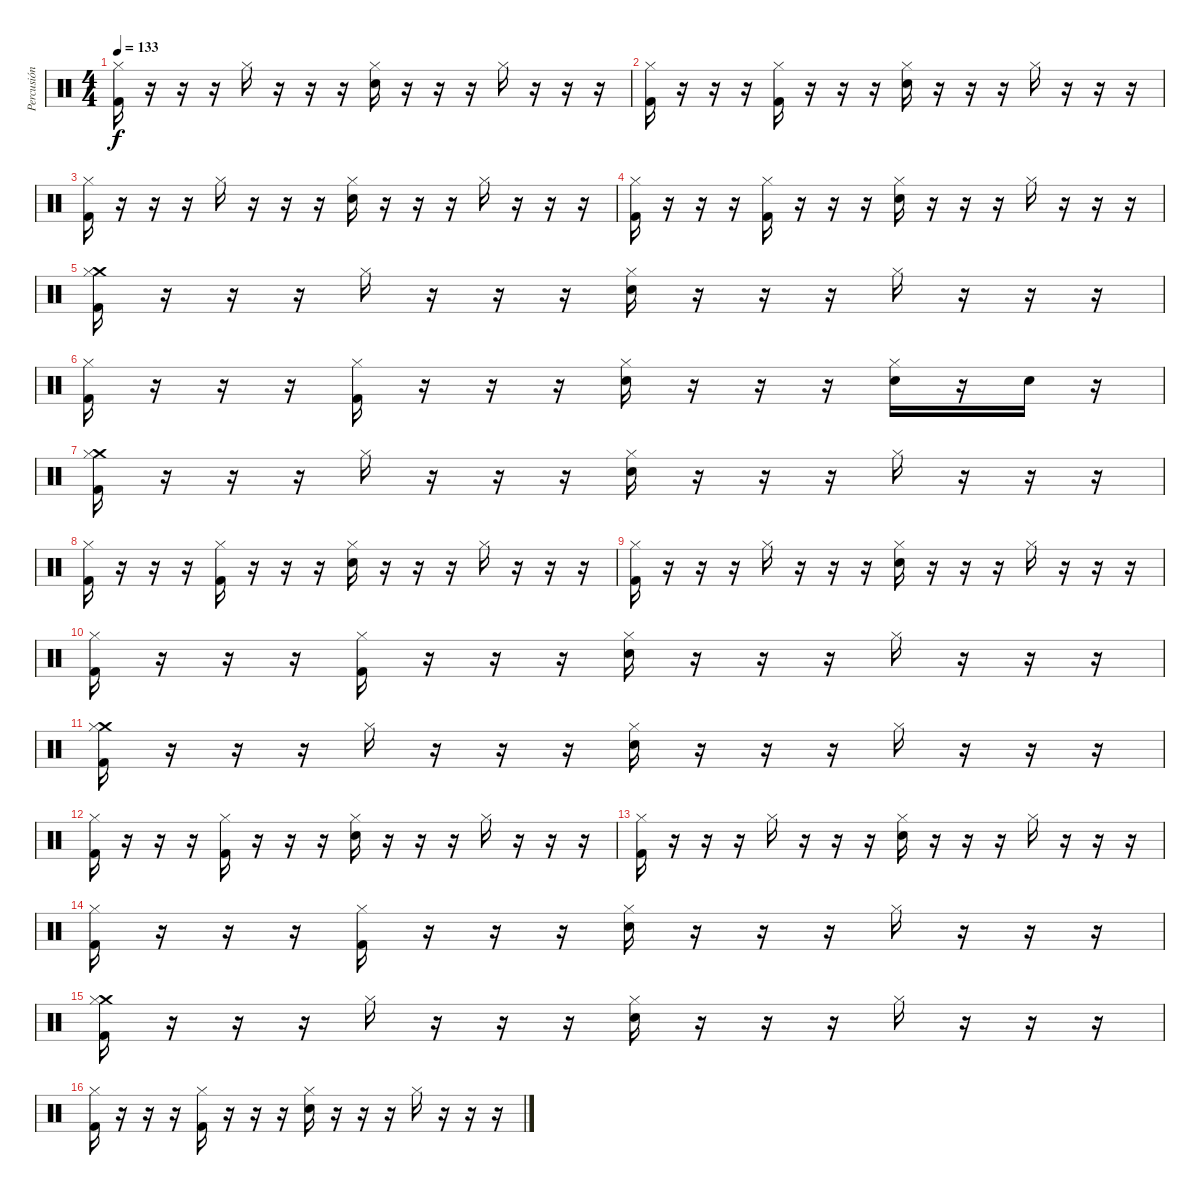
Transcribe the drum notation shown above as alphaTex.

\track ("Percusión" "Percusión") {instrument percussion}
\staff {score}
\articulation defaults
\ts (4 4)
\tempo 133
\clef neutral
\ks c
("Hi-Hat (closed)" "Kick (hit) 2").16{dy f} r.16 r.16 r.16 "Hi-Hat (closed)".16 r.16 r.16 r.16 ("Hi-Hat (closed)" "Snare (hit) 2").16 r.16 r.16 r.16 "Hi-Hat (closed)".16 r.16 r.16 r.16 |
("Hi-Hat (closed)" "Kick (hit) 2").16 r.16 r.16 r.16 ("Hi-Hat (closed)" "Kick (hit) 2").16 r.16 r.16 r.16 ("Hi-Hat (closed)" "Snare (hit) 2").16 r.16 r.16 r.16 "Hi-Hat (closed)".16 r.16 r.16 r.16 |
("Hi-Hat (closed)" "Kick (hit) 2").16 r.16 r.16 r.16 "Hi-Hat (closed)".16 r.16 r.16 r.16 ("Hi-Hat (closed)" "Snare (hit) 2").16 r.16 r.16 r.16 "Hi-Hat (closed)".16 r.16 r.16 r.16 |
("Hi-Hat (closed)" "Kick (hit) 2").16 r.16 r.16 r.16 ("Hi-Hat (closed)" "Kick (hit) 2").16 r.16 r.16 r.16 ("Hi-Hat (closed)" "Snare (hit) 2").16 r.16 r.16 r.16 "Hi-Hat (closed)".16 r.16 r.16 r.16 |
("Crash medium (hit)" "Hi-Hat (closed)" "Kick (hit) 2").16 r.16 r.16 r.16 "Hi-Hat (closed)".16 r.16 r.16 r.16 ("Hi-Hat (closed)" "Snare (hit) 2").16 r.16 r.16 r.16 "Hi-Hat (closed)".16 r.16 r.16 r.16 |
("Hi-Hat (closed)" "Kick (hit) 2").16 r.16 r.16 r.16 ("Hi-Hat (closed)" "Kick (hit) 2").16 r.16 r.16 r.16 ("Hi-Hat (closed)" "Snare (hit) 2").16 r.16 r.16 r.16 ("Hi-Hat (closed)" "Snare (hit) 2").16 r.16 "Snare (hit) 2".16 r.16 |
("Crash medium (hit)" "Hi-Hat (closed)" "Kick (hit) 2").16 r.16 r.16 r.16 "Hi-Hat (closed)".16 r.16 r.16 r.16 ("Hi-Hat (closed)" "Snare (hit) 2").16 r.16 r.16 r.16 "Hi-Hat (closed)".16 r.16 r.16 r.16 |
("Hi-Hat (closed)" "Kick (hit) 2").16 r.16 r.16 r.16 ("Hi-Hat (closed)" "Kick (hit) 2").16 r.16 r.16 r.16 ("Hi-Hat (closed)" "Snare (hit) 2").16 r.16 r.16 r.16 "Hi-Hat (closed)".16 r.16 r.16 r.16 |
("Hi-Hat (closed)" "Kick (hit) 2").16 r.16 r.16 r.16 "Hi-Hat (closed)".16 r.16 r.16 r.16 ("Hi-Hat (closed)" "Snare (hit) 2").16 r.16 r.16 r.16 "Hi-Hat (closed)".16 r.16 r.16 r.16 |
("Hi-Hat (closed)" "Kick (hit) 2").16 r.16 r.16 r.16 ("Hi-Hat (closed)" "Kick (hit) 2").16 r.16 r.16 r.16 ("Hi-Hat (closed)" "Snare (hit) 2").16 r.16 r.16 r.16 "Hi-Hat (closed)".16 r.16 r.16 r.16 |
("Crash medium (hit)" "Hi-Hat (closed)" "Kick (hit) 2").16 r.16 r.16 r.16 "Hi-Hat (closed)".16 r.16 r.16 r.16 ("Hi-Hat (closed)" "Snare (hit) 2").16 r.16 r.16 r.16 "Hi-Hat (closed)".16 r.16 r.16 r.16 |
("Hi-Hat (closed)" "Kick (hit) 2").16 r.16 r.16 r.16 ("Hi-Hat (closed)" "Kick (hit) 2").16 r.16 r.16 r.16 ("Hi-Hat (closed)" "Snare (hit) 2").16 r.16 r.16 r.16 "Hi-Hat (closed)".16 r.16 r.16 r.16 |
("Hi-Hat (closed)" "Kick (hit) 2").16 r.16 r.16 r.16 "Hi-Hat (closed)".16 r.16 r.16 r.16 ("Hi-Hat (closed)" "Snare (hit) 2").16 r.16 r.16 r.16 "Hi-Hat (closed)".16 r.16 r.16 r.16 |
("Hi-Hat (closed)" "Kick (hit) 2").16 r.16 r.16 r.16 ("Hi-Hat (closed)" "Kick (hit) 2").16 r.16 r.16 r.16 ("Hi-Hat (closed)" "Snare (hit) 2").16 r.16 r.16 r.16 "Hi-Hat (closed)".16 r.16 r.16 r.16 |
("Crash medium (hit)" "Hi-Hat (closed)" "Kick (hit) 2").16 r.16 r.16 r.16 "Hi-Hat (closed)".16 r.16 r.16 r.16 ("Hi-Hat (closed)" "Snare (hit) 2").16 r.16 r.16 r.16 "Hi-Hat (closed)".16 r.16 r.16 r.16 |
("Hi-Hat (closed)" "Kick (hit) 2").16 r.16 r.16 r.16 ("Hi-Hat (closed)" "Kick (hit) 2").16 r.16 r.16 r.16 ("Hi-Hat (closed)" "Snare (hit) 2").16 r.16 r.16 r.16 "Hi-Hat (closed)".16 r.16 r.16 r.16
